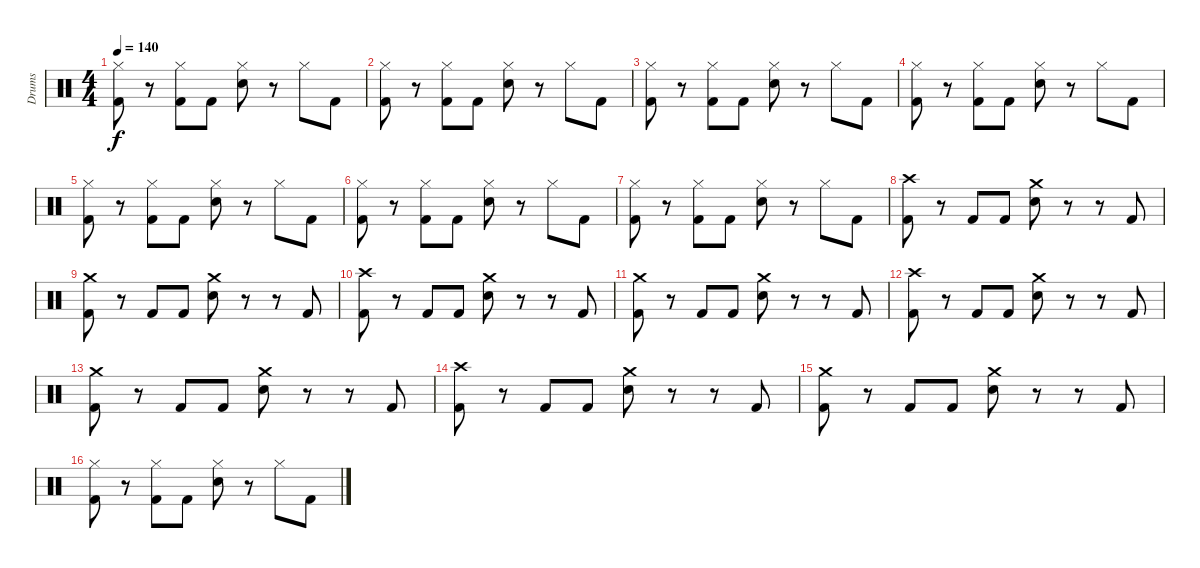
\track ("Drums" "Drums") {instrument percussion}
\staff {score}
\articulation defaults
\ts (4 4)
\tempo 140
\clef neutral
\ks c
("Hi-Hat (closed)" "Kick (hit) 2").8{dy f} r.8 ("Hi-Hat (closed)" "Kick (hit) 2").8 "Kick (hit) 2".8 ("Hi-Hat (closed)" "Snare (hit) 2").8 r.8 "Hi-Hat (closed)".8 "Kick (hit) 2".8 |
("Hi-Hat (closed)" "Kick (hit) 2").8 r.8 ("Hi-Hat (closed)" "Kick (hit) 2").8 "Kick (hit) 2".8 ("Hi-Hat (closed)" "Snare (hit) 2").8 r.8 "Hi-Hat (closed)".8 "Kick (hit) 2".8 |
("Hi-Hat (closed)" "Kick (hit) 2").8 r.8 ("Hi-Hat (closed)" "Kick (hit) 2").8 "Kick (hit) 2".8 ("Hi-Hat (closed)" "Snare (hit) 2").8 r.8 "Hi-Hat (closed)".8 "Kick (hit) 2".8 |
("Hi-Hat (closed)" "Kick (hit) 2").8 r.8 ("Hi-Hat (closed)" "Kick (hit) 2").8 "Kick (hit) 2".8 ("Hi-Hat (closed)" "Snare (hit) 2").8 r.8 "Hi-Hat (closed)".8 "Kick (hit) 2".8 |
("Hi-Hat (closed)" "Kick (hit) 2").8 r.8 ("Hi-Hat (closed)" "Kick (hit) 2").8 "Kick (hit) 2".8 ("Hi-Hat (closed)" "Snare (hit) 2").8 r.8 "Hi-Hat (closed)".8 "Kick (hit) 2".8 |
("Hi-Hat (closed)" "Kick (hit) 2").8 r.8 ("Hi-Hat (closed)" "Kick (hit) 2").8 "Kick (hit) 2".8 ("Hi-Hat (closed)" "Snare (hit) 2").8 r.8 "Hi-Hat (closed)".8 "Kick (hit) 2".8 |
("Hi-Hat (closed)" "Kick (hit) 2").8 r.8 ("Hi-Hat (closed)" "Kick (hit) 2").8 "Kick (hit) 2".8 ("Hi-Hat (closed)" "Snare (hit) 2").8 r.8 "Hi-Hat (closed)".8 "Kick (hit) 2".8 |
("Crash high (hit)" "Kick (hit) 2").8 r.8 "Kick (hit) 2".8 "Kick (hit) 2".8 ("Crash medium (hit)" "Snare (hit) 2").8 r.8 r.8 "Kick (hit) 2".8 |
("Crash medium (hit)" "Kick (hit) 2").8 r.8 "Kick (hit) 2".8 "Kick (hit) 2".8 ("Crash medium (hit)" "Snare (hit) 2").8 r.8 r.8 "Kick (hit) 2".8 |
("Crash high (hit)" "Kick (hit) 2").8 r.8 "Kick (hit) 2".8 "Kick (hit) 2".8 ("Crash medium (hit)" "Snare (hit) 2").8 r.8 r.8 "Kick (hit) 2".8 |
("Crash medium (hit)" "Kick (hit) 2").8 r.8 "Kick (hit) 2".8 "Kick (hit) 2".8 ("Crash medium (hit)" "Snare (hit) 2").8 r.8 r.8 "Kick (hit) 2".8 |
("Crash high (hit)" "Kick (hit) 2").8 r.8 "Kick (hit) 2".8 "Kick (hit) 2".8 ("Crash medium (hit)" "Snare (hit) 2").8 r.8 r.8 "Kick (hit) 2".8 |
("Crash medium (hit)" "Kick (hit) 2").8 r.8 "Kick (hit) 2".8 "Kick (hit) 2".8 ("Crash medium (hit)" "Snare (hit) 2").8 r.8 r.8 "Kick (hit) 2".8 |
("Crash high (hit)" "Kick (hit) 2").8 r.8 "Kick (hit) 2".8 "Kick (hit) 2".8 ("Crash medium (hit)" "Snare (hit) 2").8 r.8 r.8 "Kick (hit) 2".8 |
("Crash medium (hit)" "Kick (hit) 2").8 r.8 "Kick (hit) 2".8 "Kick (hit) 2".8 ("Crash medium (hit)" "Snare (hit) 2").8 r.8 r.8 "Kick (hit) 2".8 |
("Hi-Hat (closed)" "Kick (hit) 2").8 r.8 ("Hi-Hat (closed)" "Kick (hit) 2").8 "Kick (hit) 2".8 ("Hi-Hat (closed)" "Snare (hit) 2").8 r.8 "Hi-Hat (closed)".8 "Kick (hit) 2".8
